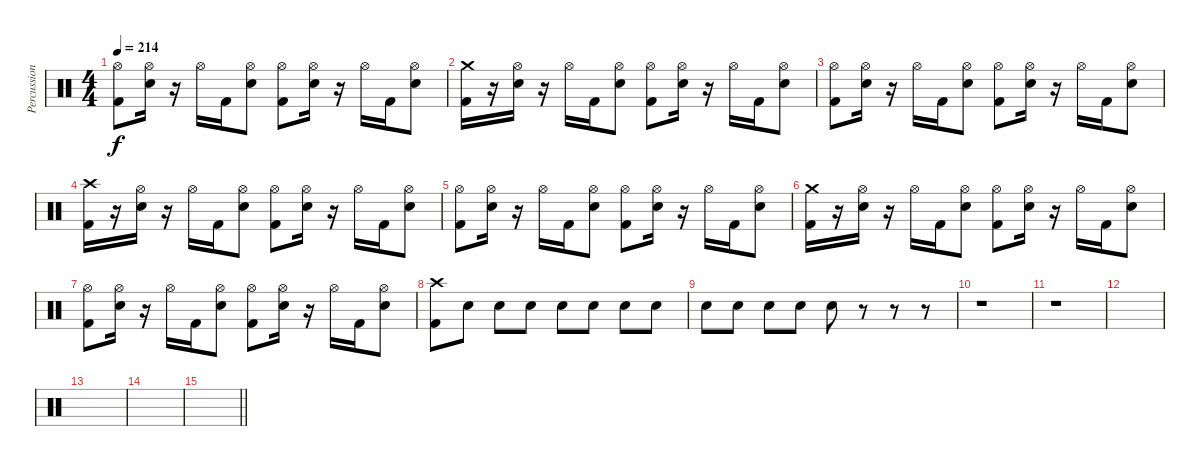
\track ("Percussion" "Percussion") {instrument percussion}
\staff {score}
\articulation defaults
\ts (4 4)
\tempo 214
\clef neutral
\ks c
("Kick (hit) 2" "Hi-Hat (open)").8{dy f} ("Electric Snare (hit)" "Hi-Hat (open)").16 r.16 "Hi-Hat (open)".16 "Kick (hit) 2".16 ("Electric Snare (hit)" "Hi-Hat (open)").8 ("Kick (hit) 2" "Hi-Hat (open)").8 ("Electric Snare (hit)" "Hi-Hat (open)").16 r.16 "Hi-Hat (open)".16 "Kick (hit) 2".16 ("Electric Snare (hit)" "Hi-Hat (open)").8 |
("Kick (hit) 2" "Crash medium (hit)").16 r.16 ("Electric Snare (hit)" "Hi-Hat (open)").16 r.16 "Hi-Hat (open)".16 "Kick (hit) 2".16 ("Electric Snare (hit)" "Hi-Hat (open)").8 ("Kick (hit) 2" "Hi-Hat (open)").8 ("Electric Snare (hit)" "Hi-Hat (open)").16 r.16 "Hi-Hat (open)".16 "Kick (hit) 2".16 ("Electric Snare (hit)" "Hi-Hat (open)").8 |
("Kick (hit) 2" "Hi-Hat (open)").8 ("Electric Snare (hit)" "Hi-Hat (open)").16 r.16 "Hi-Hat (open)".16 "Kick (hit) 2".16 ("Electric Snare (hit)" "Hi-Hat (open)").8 ("Kick (hit) 2" "Hi-Hat (open)").8 ("Electric Snare (hit)" "Hi-Hat (open)").16 r.16 "Hi-Hat (open)".16 "Kick (hit) 2".16 ("Electric Snare (hit)" "Hi-Hat (open)").8 |
("Crash high (hit)" "Kick (hit) 2").16 r.16 ("Electric Snare (hit)" "Hi-Hat (open)").16 r.16 "Hi-Hat (open)".16 "Kick (hit) 2".16 ("Electric Snare (hit)" "Hi-Hat (open)").8 ("Kick (hit) 2" "Hi-Hat (open)").8 ("Electric Snare (hit)" "Hi-Hat (open)").16 r.16 "Hi-Hat (open)".16 "Kick (hit) 2".16 ("Electric Snare (hit)" "Hi-Hat (open)").8 |
("Kick (hit) 2" "Hi-Hat (open)").8 ("Electric Snare (hit)" "Hi-Hat (open)").16 r.16 "Hi-Hat (open)".16 "Kick (hit) 2".16 ("Electric Snare (hit)" "Hi-Hat (open)").8 ("Kick (hit) 2" "Hi-Hat (open)").8 ("Electric Snare (hit)" "Hi-Hat (open)").16 r.16 "Hi-Hat (open)".16 "Kick (hit) 2".16 ("Electric Snare (hit)" "Hi-Hat (open)").8 |
("Kick (hit) 2" "Crash medium (hit)").16 r.16 ("Electric Snare (hit)" "Hi-Hat (open)").16 r.16 "Hi-Hat (open)".16 "Kick (hit) 2".16 ("Electric Snare (hit)" "Hi-Hat (open)").8 ("Kick (hit) 2" "Hi-Hat (open)").8 ("Electric Snare (hit)" "Hi-Hat (open)").16 r.16 "Hi-Hat (open)".16 "Kick (hit) 2".16 ("Electric Snare (hit)" "Hi-Hat (open)").8 |
("Kick (hit) 2" "Hi-Hat (open)").8 ("Electric Snare (hit)" "Hi-Hat (open)").16 r.16 "Hi-Hat (open)".16 "Kick (hit) 2".16 ("Electric Snare (hit)" "Hi-Hat (open)").8 ("Kick (hit) 2" "Hi-Hat (open)").8 ("Electric Snare (hit)" "Hi-Hat (open)").16 r.16 "Hi-Hat (open)".16 "Kick (hit) 2".16 ("Electric Snare (hit)" "Hi-Hat (open)").8 |
("Crash high (hit)" "Kick (hit) 2").8 "Electric Snare (hit)".8 "Electric Snare (hit)".8 "Electric Snare (hit)".8 "Electric Snare (hit)".8 "Electric Snare (hit)".8 "Electric Snare (hit)".8 "Electric Snare (hit)".8 |
"Electric Snare (hit)".8 "Electric Snare (hit)".8 "Electric Snare (hit)".8 "Electric Snare (hit)".8 "Electric Snare (hit)".8 r.8 r.8 r.8 |
r.1 |
r.1 |
|
|
|
\barLineRight lightlight
